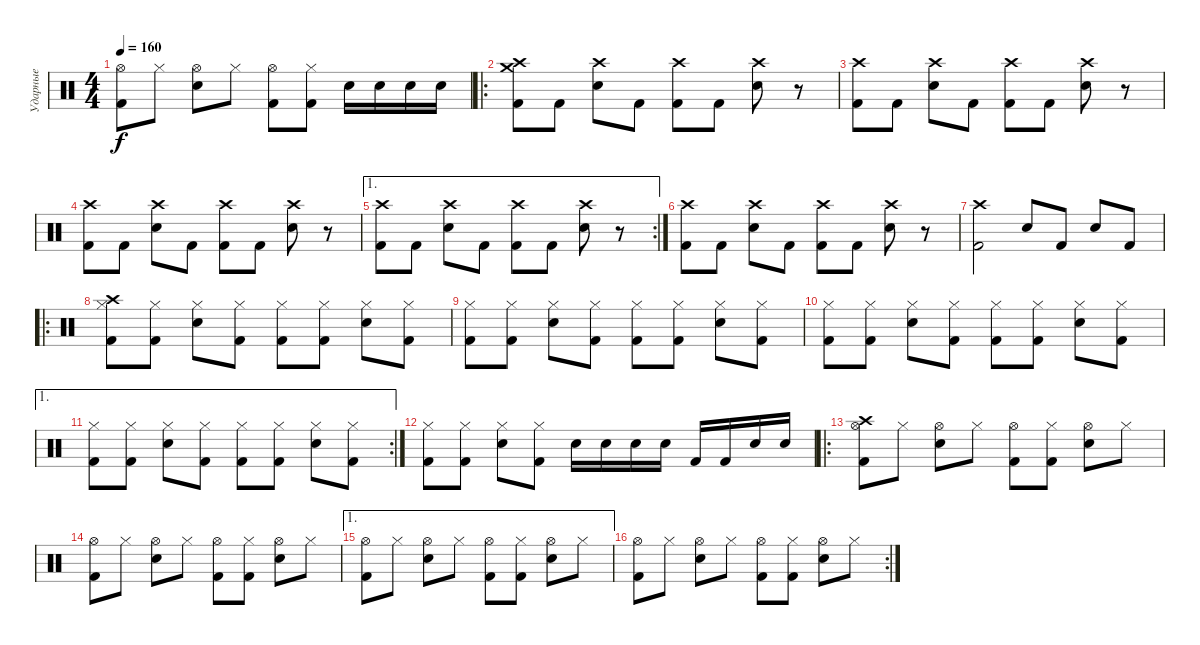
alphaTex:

\track ("Ударные" "Ударные") {instrument percussion}
\staff {score}
\articulation defaults
\ts (4 4)
\tempo 160
\clef neutral
\ks c
("Kick (hit) 2" "Hi-Hat (open)").8{dy f} "Hi-Hat (closed)".8 ("Snare (hit) 2" "Hi-Hat (open)").8 "Hi-Hat (closed)".8 ("Kick (hit) 2" "Hi-Hat (open)").8 ("Kick (hit) 2" "Hi-Hat (closed)").8 "Snare (hit) 2".16 "Snare (hit) 2".16 "Snare (hit) 2".16 "Snare (hit) 2".16 |
\ro
("Kick (hit) 2" "Crash high (hit)" "Crash medium (hit)").8 "Kick (hit) 2".8 ("Snare (hit) 2" "Crash high (hit)").8 "Kick (hit) 2".8 ("Kick (hit) 2" "Crash high (hit)").8 "Kick (hit) 2".8 ("Snare (hit) 2" "Crash high (hit)").8 r.8 |
("Kick (hit) 2" "Crash high (hit)").8 "Kick (hit) 2".8 ("Snare (hit) 2" "Crash high (hit)").8 "Kick (hit) 2".8 ("Kick (hit) 2" "Crash high (hit)").8 "Kick (hit) 2".8 ("Snare (hit) 2" "Crash high (hit)").8 r.8 |
("Kick (hit) 2" "Crash high (hit)").8 "Kick (hit) 2".8 ("Snare (hit) 2" "Crash high (hit)").8 "Kick (hit) 2".8 ("Kick (hit) 2" "Crash high (hit)").8 "Kick (hit) 2".8 ("Snare (hit) 2" "Crash high (hit)").8 r.8 |
\ae 1
\rc 2
("Kick (hit) 2" "Crash high (hit)").8 "Kick (hit) 2".8 ("Snare (hit) 2" "Crash high (hit)").8 "Kick (hit) 2".8 ("Kick (hit) 2" "Crash high (hit)").8 "Kick (hit) 2".8 ("Snare (hit) 2" "Crash high (hit)").8 r.8 |
("Kick (hit) 2" "Crash high (hit)").8 "Kick (hit) 2".8 ("Snare (hit) 2" "Crash high (hit)").8 "Kick (hit) 2".8 ("Kick (hit) 2" "Crash high (hit)").8 "Kick (hit) 2".8 ("Snare (hit) 2" "Crash high (hit)").8 r.8 |
("Kick (hit) 2" "Crash high (hit)").2 "Snare (hit) 2".8 "Kick (hit) 2".8 "Snare (hit) 2".8 "Kick (hit) 2".8 |
\ro
("Kick (hit) 2" "Hi-Hat (closed)" "Crash high (hit)").8 ("Kick (hit) 2" "Hi-Hat (closed)").8 ("Snare (hit) 2" "Hi-Hat (closed)").8 ("Kick (hit) 2" "Hi-Hat (closed)").8 ("Kick (hit) 2" "Hi-Hat (closed)").8 ("Kick (hit) 2" "Hi-Hat (closed)").8 ("Snare (hit) 2" "Hi-Hat (closed)").8 ("Kick (hit) 2" "Hi-Hat (closed)").8 |
("Kick (hit) 2" "Hi-Hat (closed)").8 ("Kick (hit) 2" "Hi-Hat (closed)").8 ("Snare (hit) 2" "Hi-Hat (closed)").8 ("Kick (hit) 2" "Hi-Hat (closed)").8 ("Kick (hit) 2" "Hi-Hat (closed)").8 ("Kick (hit) 2" "Hi-Hat (closed)").8 ("Snare (hit) 2" "Hi-Hat (closed)").8 ("Kick (hit) 2" "Hi-Hat (closed)").8 |
("Kick (hit) 2" "Hi-Hat (closed)").8 ("Kick (hit) 2" "Hi-Hat (closed)").8 ("Snare (hit) 2" "Hi-Hat (closed)").8 ("Kick (hit) 2" "Hi-Hat (closed)").8 ("Kick (hit) 2" "Hi-Hat (closed)").8 ("Kick (hit) 2" "Hi-Hat (closed)").8 ("Snare (hit) 2" "Hi-Hat (closed)").8 ("Kick (hit) 2" "Hi-Hat (closed)").8 |
\ae 1
\rc 2
("Kick (hit) 2" "Hi-Hat (closed)").8 ("Kick (hit) 2" "Hi-Hat (closed)").8 ("Snare (hit) 2" "Hi-Hat (closed)").8 ("Kick (hit) 2" "Hi-Hat (closed)").8 ("Kick (hit) 2" "Hi-Hat (closed)").8 ("Kick (hit) 2" "Hi-Hat (closed)").8 ("Snare (hit) 2" "Hi-Hat (closed)").8 ("Kick (hit) 2" "Hi-Hat (closed)").8 |
("Kick (hit) 2" "Hi-Hat (closed)").8 ("Kick (hit) 2" "Hi-Hat (closed)").8 ("Snare (hit) 2" "Hi-Hat (closed)").8 ("Kick (hit) 2" "Hi-Hat (closed)").8 "Snare (hit) 2".16 "Snare (hit) 2".16 "Snare (hit) 2".16 "Snare (hit) 2".16 "Kick (hit) 2".16 "Kick (hit) 2".16 "Snare (hit) 2".16 "Snare (hit) 2".16 |
\ro
("Kick (hit) 2" "Hi-Hat (open)" "Crash high (hit)").8 "Hi-Hat (closed)".8 ("Snare (hit) 2" "Hi-Hat (open)").8 "Hi-Hat (closed)".8 ("Kick (hit) 2" "Hi-Hat (open)").8 ("Kick (hit) 2" "Hi-Hat (closed)").8 ("Snare (hit) 2" "Hi-Hat (open)").8 "Hi-Hat (closed)".8 |
("Kick (hit) 2" "Hi-Hat (open)").8 "Hi-Hat (closed)".8 ("Snare (hit) 2" "Hi-Hat (open)").8 "Hi-Hat (closed)".8 ("Kick (hit) 2" "Hi-Hat (open)").8 ("Kick (hit) 2" "Hi-Hat (closed)").8 ("Snare (hit) 2" "Hi-Hat (open)").8 "Hi-Hat (closed)".8 |
\ae 1
("Kick (hit) 2" "Hi-Hat (open)").8 "Hi-Hat (closed)".8 ("Snare (hit) 2" "Hi-Hat (open)").8 "Hi-Hat (closed)".8 ("Kick (hit) 2" "Hi-Hat (open)").8 ("Kick (hit) 2" "Hi-Hat (closed)").8 ("Snare (hit) 2" "Hi-Hat (open)").8 "Hi-Hat (closed)".8 |
\rc 2
("Kick (hit) 2" "Hi-Hat (open)").8 "Hi-Hat (closed)".8 ("Snare (hit) 2" "Hi-Hat (open)").8 "Hi-Hat (closed)".8 ("Kick (hit) 2" "Hi-Hat (open)").8 ("Kick (hit) 2" "Hi-Hat (closed)").8 ("Snare (hit) 2" "Hi-Hat (open)").8 "Hi-Hat (closed)".8
